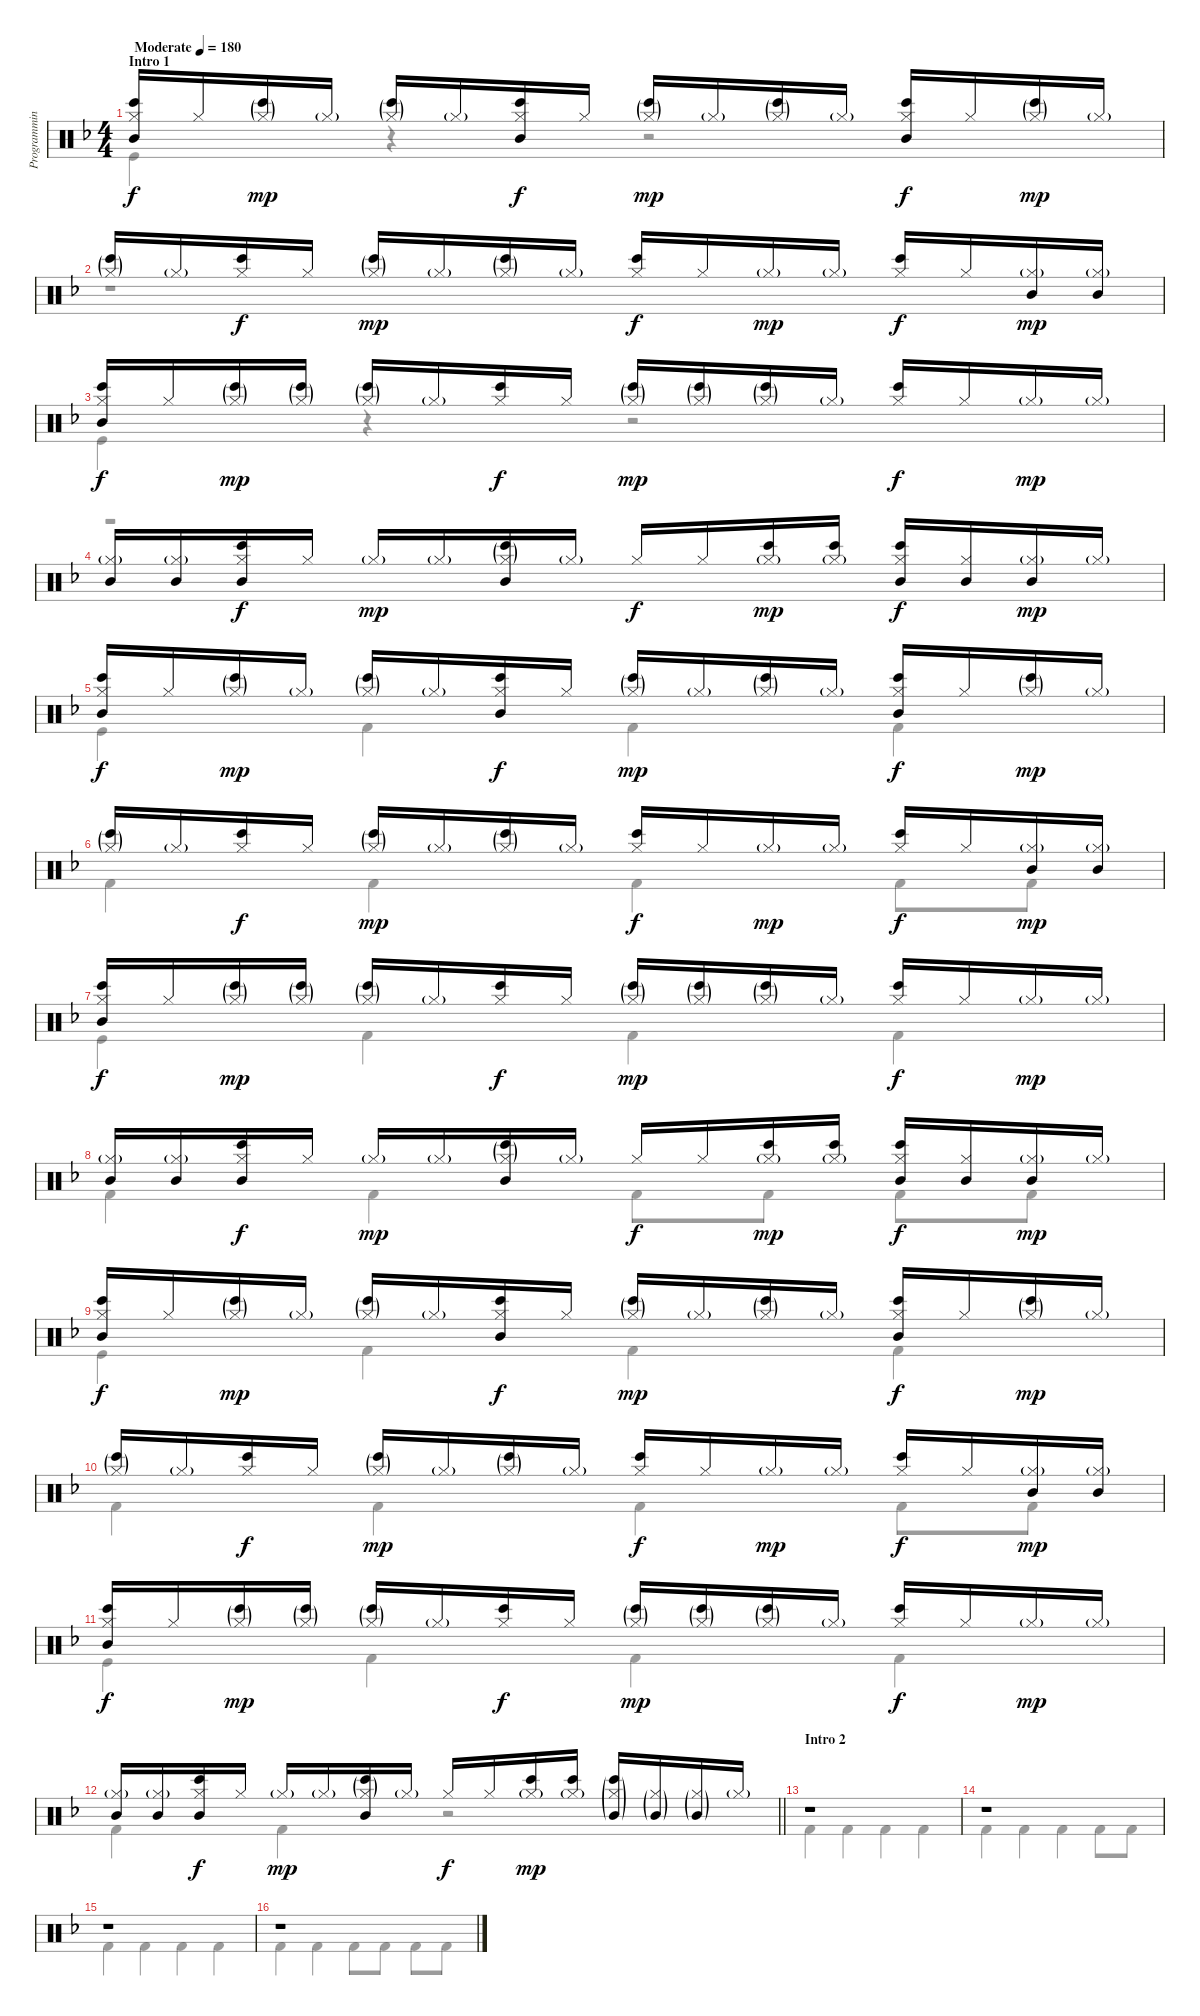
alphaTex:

\track ("Programming" "Programmin") {instrument percussion}
\staff {score}
\articulation defaults
\voice
\ts (4 4)
\section ("" "Intro 1")
\tempo (180 "Moderate")
\clef neutral
\ks f
("Hi-Hat (closed)" "Bongo High (hit)" "Mid Tom (hit)").16{dy f} "Hi-Hat (closed)".16 ("Hi-Hat (closed)"{g} "Bongo High (hit)"{g}).16{dy mp} "Hi-Hat (closed)"{g}.16 ("Hi-Hat (closed)"{g} "Bongo High (hit)"{g}).16 "Hi-Hat (closed)"{g}.16 ("Hi-Hat (closed)" "Bongo High (hit)" "Mid Tom (hit)").16{dy f} "Hi-Hat (closed)".16 ("Hi-Hat (closed)"{g} "Bongo High (hit)"{g}).16{dy mp} "Hi-Hat (closed)"{g}.16 ("Hi-Hat (closed)"{g} "Bongo High (hit)"{g}).16 "Hi-Hat (closed)"{g}.16 ("Hi-Hat (closed)" "Bongo High (hit)" "Mid Tom (hit)").16{dy f} "Hi-Hat (closed)".16 ("Hi-Hat (closed)"{g} "Bongo High (hit)"{g}).16{dy mp} "Hi-Hat (closed)"{g}.16 |
("Hi-Hat (closed)"{g} "Bongo High (hit)"{g}).16 "Hi-Hat (closed)"{g}.16 ("Hi-Hat (closed)" "Bongo High (hit)").16{dy f} "Hi-Hat (closed)".16 ("Hi-Hat (closed)"{g} "Bongo High (hit)"{g}).16{dy mp} "Hi-Hat (closed)"{g}.16 ("Hi-Hat (closed)"{g} "Bongo High (hit)"{g}).16 "Hi-Hat (closed)"{g}.16 ("Hi-Hat (closed)" "Bongo High (hit)").16{dy f} "Hi-Hat (closed)".16 "Hi-Hat (closed)"{g}.16{dy mp} "Hi-Hat (closed)"{g}.16 ("Hi-Hat (closed)" "Bongo High (hit)").16{dy f} "Hi-Hat (closed)".16 ("Hi-Hat (closed)"{g} "Mid Tom (hit)").16{dy mp} ("Hi-Hat (closed)"{g} "Mid Tom (hit)").16 |
("Hi-Hat (closed)" "Bongo High (hit)" "Mid Tom (hit)").16{dy f} "Hi-Hat (closed)".16 ("Hi-Hat (closed)"{g} "Bongo High (hit)"{g}).16{dy mp} ("Hi-Hat (closed)"{g} "Bongo High (hit)"{g}).16 ("Hi-Hat (closed)"{g} "Bongo High (hit)"{g}).16 "Hi-Hat (closed)"{g}.16 ("Hi-Hat (closed)" "Bongo High (hit)").16{dy f} "Hi-Hat (closed)".16 ("Hi-Hat (closed)"{g} "Bongo High (hit)"{g}).16{dy mp} ("Hi-Hat (closed)"{g} "Bongo High (hit)"{g}).16 ("Hi-Hat (closed)"{g} "Bongo High (hit)"{g}).16 "Hi-Hat (closed)"{g}.16 ("Hi-Hat (closed)" "Bongo High (hit)").16{dy f} "Hi-Hat (closed)".16 "Hi-Hat (closed)"{g}.16{dy mp} "Hi-Hat (closed)"{g}.16 |
("Hi-Hat (closed)"{g} "Mid Tom (hit)").16 ("Hi-Hat (closed)"{g} "Mid Tom (hit)").16 ("Hi-Hat (closed)" "Bongo High (hit)" "Mid Tom (hit)").16{dy f} "Hi-Hat (closed)".16 "Hi-Hat (closed)"{g}.16{dy mp} "Hi-Hat (closed)"{g}.16 ("Hi-Hat (closed)"{g} "Bongo High (hit)"{g} "Mid Tom (hit)").16 "Hi-Hat (closed)"{g}.16 "Hi-Hat (closed)".16{dy f} "Hi-Hat (closed)".16 ("Hi-Hat (closed)"{g} "Bongo High (hit)").16{dy mp} ("Hi-Hat (closed)"{g} "Bongo High (hit)").16 ("Hi-Hat (closed)" "Bongo High (hit)" "Mid Tom (hit)").16{dy f} ("Hi-Hat (closed)" "Mid Tom (hit)").16 ("Hi-Hat (closed)"{g} "Mid Tom (hit)").16{dy mp} "Hi-Hat (closed)"{g}.16 |
("Hi-Hat (closed)" "Bongo High (hit)" "Mid Tom (hit)").16{dy f} "Hi-Hat (closed)".16 ("Hi-Hat (closed)"{g} "Bongo High (hit)"{g}).16{dy mp} "Hi-Hat (closed)"{g}.16 ("Hi-Hat (closed)"{g} "Bongo High (hit)"{g}).16 "Hi-Hat (closed)"{g}.16 ("Hi-Hat (closed)" "Bongo High (hit)" "Mid Tom (hit)").16{dy f} "Hi-Hat (closed)".16 ("Hi-Hat (closed)"{g} "Bongo High (hit)"{g}).16{dy mp} "Hi-Hat (closed)"{g}.16 ("Hi-Hat (closed)"{g} "Bongo High (hit)"{g}).16 "Hi-Hat (closed)"{g}.16 ("Hi-Hat (closed)" "Bongo High (hit)" "Mid Tom (hit)").16{dy f} "Hi-Hat (closed)".16 ("Hi-Hat (closed)"{g} "Bongo High (hit)"{g}).16{dy mp} "Hi-Hat (closed)"{g}.16 |
("Hi-Hat (closed)"{g} "Bongo High (hit)"{g}).16 "Hi-Hat (closed)"{g}.16 ("Hi-Hat (closed)" "Bongo High (hit)").16{dy f} "Hi-Hat (closed)".16 ("Hi-Hat (closed)"{g} "Bongo High (hit)"{g}).16{dy mp} "Hi-Hat (closed)"{g}.16 ("Hi-Hat (closed)"{g} "Bongo High (hit)"{g}).16 "Hi-Hat (closed)"{g}.16 ("Hi-Hat (closed)" "Bongo High (hit)").16{dy f} "Hi-Hat (closed)".16 "Hi-Hat (closed)"{g}.16{dy mp} "Hi-Hat (closed)"{g}.16 ("Hi-Hat (closed)" "Bongo High (hit)").16{dy f} "Hi-Hat (closed)".16 ("Hi-Hat (closed)"{g} "Mid Tom (hit)").16{dy mp} ("Hi-Hat (closed)"{g} "Mid Tom (hit)").16 |
("Hi-Hat (closed)" "Bongo High (hit)" "Mid Tom (hit)").16{dy f} "Hi-Hat (closed)".16 ("Hi-Hat (closed)"{g} "Bongo High (hit)"{g}).16{dy mp} ("Hi-Hat (closed)"{g} "Bongo High (hit)"{g}).16 ("Hi-Hat (closed)"{g} "Bongo High (hit)"{g}).16 "Hi-Hat (closed)"{g}.16 ("Hi-Hat (closed)" "Bongo High (hit)").16{dy f} "Hi-Hat (closed)".16 ("Hi-Hat (closed)"{g} "Bongo High (hit)"{g}).16{dy mp} ("Hi-Hat (closed)"{g} "Bongo High (hit)"{g}).16 ("Hi-Hat (closed)"{g} "Bongo High (hit)"{g}).16 "Hi-Hat (closed)"{g}.16 ("Hi-Hat (closed)" "Bongo High (hit)").16{dy f} "Hi-Hat (closed)".16 "Hi-Hat (closed)"{g}.16{dy mp} "Hi-Hat (closed)"{g}.16 |
("Hi-Hat (closed)"{g} "Mid Tom (hit)").16 ("Hi-Hat (closed)"{g} "Mid Tom (hit)").16 ("Hi-Hat (closed)" "Bongo High (hit)" "Mid Tom (hit)").16{dy f} "Hi-Hat (closed)".16 "Hi-Hat (closed)"{g}.16{dy mp} "Hi-Hat (closed)"{g}.16 ("Hi-Hat (closed)"{g} "Bongo High (hit)"{g} "Mid Tom (hit)").16 "Hi-Hat (closed)"{g}.16 "Hi-Hat (closed)".16{dy f} "Hi-Hat (closed)".16 ("Hi-Hat (closed)"{g} "Bongo High (hit)").16{dy mp} ("Hi-Hat (closed)"{g} "Bongo High (hit)").16 ("Hi-Hat (closed)" "Bongo High (hit)" "Mid Tom (hit)").16{dy f} ("Hi-Hat (closed)" "Mid Tom (hit)").16 ("Hi-Hat (closed)"{g} "Mid Tom (hit)").16{dy mp} "Hi-Hat (closed)"{g}.16 |
("Hi-Hat (closed)" "Bongo High (hit)" "Mid Tom (hit)").16{dy f} "Hi-Hat (closed)".16 ("Hi-Hat (closed)"{g} "Bongo High (hit)"{g}).16{dy mp} "Hi-Hat (closed)"{g}.16 ("Hi-Hat (closed)"{g} "Bongo High (hit)"{g}).16 "Hi-Hat (closed)"{g}.16 ("Hi-Hat (closed)" "Bongo High (hit)" "Mid Tom (hit)").16{dy f} "Hi-Hat (closed)".16 ("Hi-Hat (closed)"{g} "Bongo High (hit)"{g}).16{dy mp} "Hi-Hat (closed)"{g}.16 ("Hi-Hat (closed)"{g} "Bongo High (hit)"{g}).16 "Hi-Hat (closed)"{g}.16 ("Hi-Hat (closed)" "Bongo High (hit)" "Mid Tom (hit)").16{dy f} "Hi-Hat (closed)".16 ("Hi-Hat (closed)"{g} "Bongo High (hit)"{g}).16{dy mp} "Hi-Hat (closed)"{g}.16 |
("Hi-Hat (closed)"{g} "Bongo High (hit)"{g}).16 "Hi-Hat (closed)"{g}.16 ("Hi-Hat (closed)" "Bongo High (hit)").16{dy f} "Hi-Hat (closed)".16 ("Hi-Hat (closed)"{g} "Bongo High (hit)"{g}).16{dy mp} "Hi-Hat (closed)"{g}.16 ("Hi-Hat (closed)"{g} "Bongo High (hit)"{g}).16 "Hi-Hat (closed)"{g}.16 ("Hi-Hat (closed)" "Bongo High (hit)").16{dy f} "Hi-Hat (closed)".16 "Hi-Hat (closed)"{g}.16{dy mp} "Hi-Hat (closed)"{g}.16 ("Hi-Hat (closed)" "Bongo High (hit)").16{dy f} "Hi-Hat (closed)".16 ("Hi-Hat (closed)"{g} "Mid Tom (hit)").16{dy mp} ("Hi-Hat (closed)"{g} "Mid Tom (hit)").16 |
("Hi-Hat (closed)" "Bongo High (hit)" "Mid Tom (hit)").16{dy f} "Hi-Hat (closed)".16 ("Hi-Hat (closed)"{g} "Bongo High (hit)"{g}).16{dy mp} ("Hi-Hat (closed)"{g} "Bongo High (hit)"{g}).16 ("Hi-Hat (closed)"{g} "Bongo High (hit)"{g}).16 "Hi-Hat (closed)"{g}.16 ("Hi-Hat (closed)" "Bongo High (hit)").16{dy f} "Hi-Hat (closed)".16 ("Hi-Hat (closed)"{g} "Bongo High (hit)"{g}).16{dy mp} ("Hi-Hat (closed)"{g} "Bongo High (hit)"{g}).16 ("Hi-Hat (closed)"{g} "Bongo High (hit)"{g}).16 "Hi-Hat (closed)"{g}.16 ("Hi-Hat (closed)" "Bongo High (hit)").16{dy f} "Hi-Hat (closed)".16 "Hi-Hat (closed)"{g}.16{dy mp} "Hi-Hat (closed)"{g}.16 |
\barLineRight lightlight
("Hi-Hat (closed)"{g} "Mid Tom (hit)").16 ("Hi-Hat (closed)"{g} "Mid Tom (hit)").16 ("Hi-Hat (closed)" "Bongo High (hit)" "Mid Tom (hit)").16{dy f} "Hi-Hat (closed)".16 "Hi-Hat (closed)"{g}.16{dy mp} "Hi-Hat (closed)"{g}.16 ("Hi-Hat (closed)"{g} "Bongo High (hit)"{g} "Mid Tom (hit)").16 "Hi-Hat (closed)"{g}.16 "Hi-Hat (closed)".16{dy f} "Hi-Hat (closed)".16 ("Hi-Hat (closed)"{g} "Bongo High (hit)").16{dy mp} ("Hi-Hat (closed)"{g} "Bongo High (hit)").16 ("Hi-Hat (closed)"{g} "Bongo High (hit)"{g} "Mid Tom (hit)"{g}).16 ("Hi-Hat (closed)"{g} "Mid Tom (hit)"{g}).16 ("Hi-Hat (closed)"{g} "Mid Tom (hit)"{g}).16 "Hi-Hat (closed)"{g}.16 |
\section ("" "Intro 2")
r.1 |
r.1 |
r.1 |
r.1
\voice
\clef neutral
\ottava regular
\simile none
\ks f "Kick (hit)".4{dy f}
r.4 r.2 |
r.1 |
"Kick (hit)".4 r.4 r.2 |
r.1 |
"Kick (hit)".4 "Kick (hit) 2".4 "Kick (hit) 2".4 "Kick (hit) 2".4 |
"Kick (hit) 2".4 "Kick (hit) 2".4 "Kick (hit) 2".4 "Kick (hit) 2".8 "Kick (hit) 2".8 |
"Kick (hit)".4 "Kick (hit) 2".4 "Kick (hit) 2".4 "Kick (hit) 2".4 |
"Kick (hit) 2".4 "Kick (hit) 2".4 "Kick (hit) 2".8 "Kick (hit) 2".8 "Kick (hit) 2".8 "Kick (hit) 2".8 |
"Kick (hit)".4 "Kick (hit) 2".4 "Kick (hit) 2".4 "Kick (hit) 2".4 |
"Kick (hit) 2".4 "Kick (hit) 2".4 "Kick (hit) 2".4 "Kick (hit) 2".8 "Kick (hit) 2".8 |
"Kick (hit)".4 "Kick (hit) 2".4 "Kick (hit) 2".4 "Kick (hit) 2".4 |
\barLineRight lightlight "Kick (hit) 2".4 "Kick (hit) 2".4
r.2 |
"Kick (hit) 2".4 "Kick (hit) 2".4 "Kick (hit) 2".4 "Kick (hit) 2".4 |
"Kick (hit) 2".4 "Kick (hit) 2".4 "Kick (hit) 2".4 "Kick (hit) 2".8 "Kick (hit) 2".8 |
"Kick (hit) 2".4 "Kick (hit) 2".4 "Kick (hit) 2".4 "Kick (hit) 2".4 |
"Kick (hit) 2".4 "Kick (hit) 2".4 "Kick (hit) 2".8 "Kick (hit) 2".8 "Kick (hit) 2".8 "Kick (hit) 2".8
